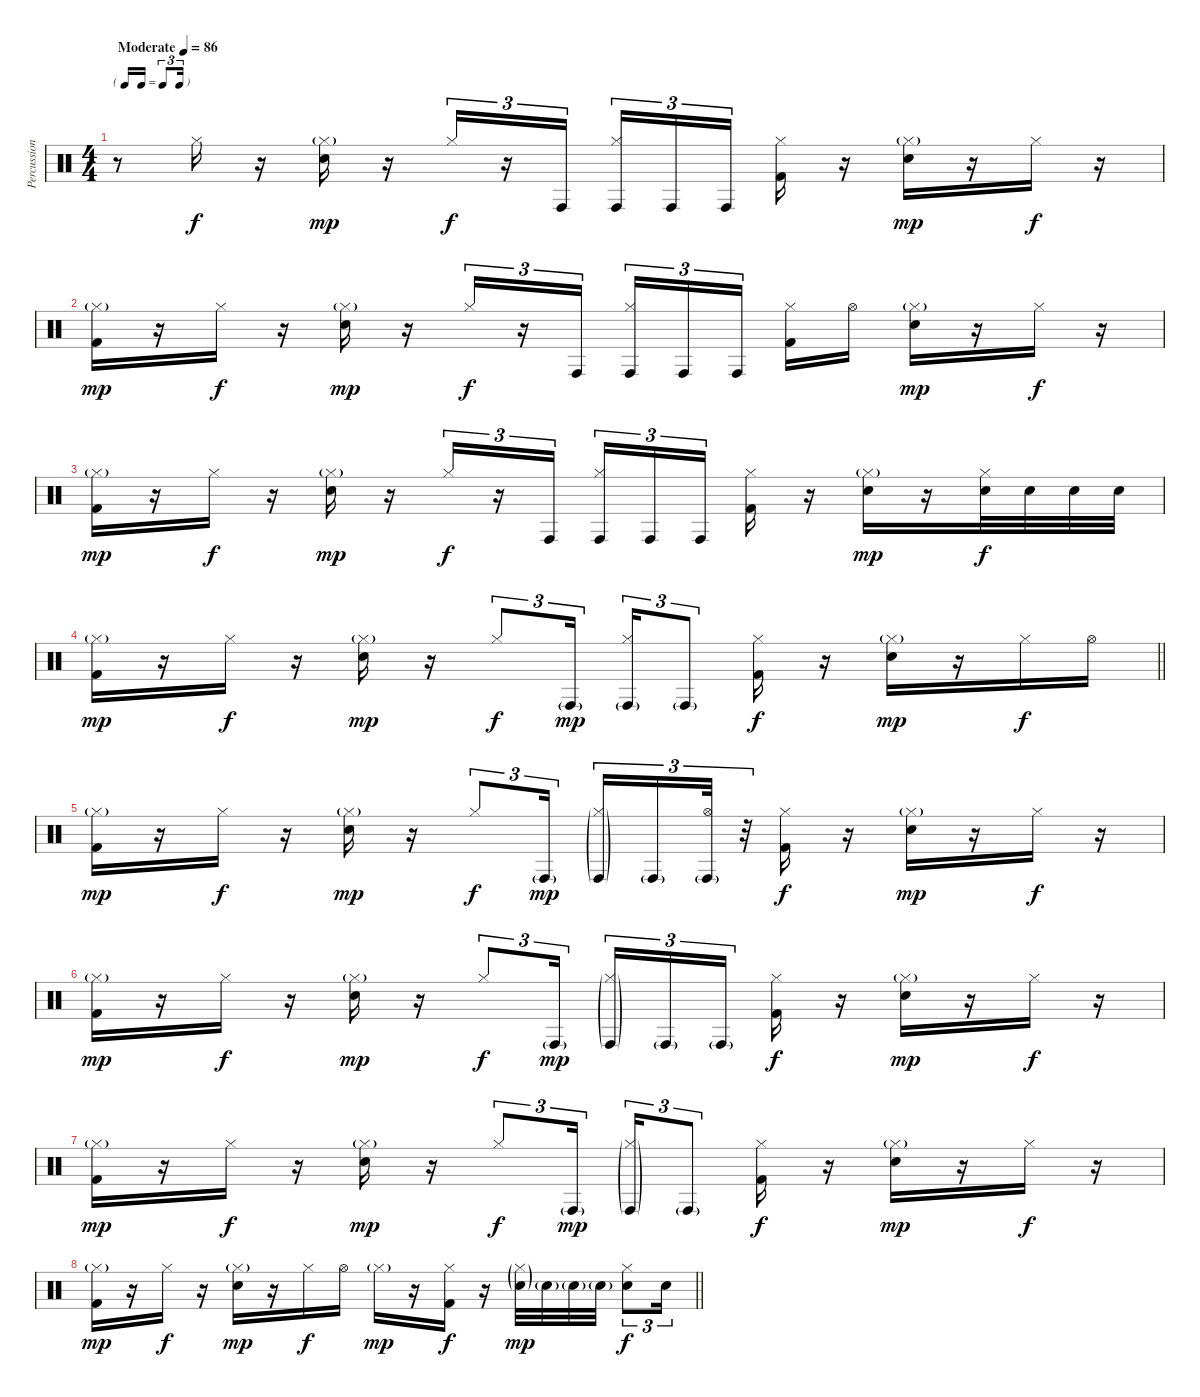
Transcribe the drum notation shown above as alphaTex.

\track ("Percussion" "Percussion") {instrument percussion}
\staff {score}
\articulation defaults
\ts (4 4)
\tf triplet16th
\tempo (86 "Moderate")
\clef neutral
\ks c
r.8{dy f} "Hi-Hat (closed)".16 r.16 ("Hi-Hat (closed)"{g} "Electric Snare (hit)").16{dy mp} r.16 "Hi-Hat (closed)".16{tu (3 2) dy f} r.16{tu (3 2)} "Conga high (hit)".16{tu (3 2)} ("Conga high (hit)" "Hi-Hat (closed)").16{tu (3 2)} "Conga high (hit)".16{tu (3 2)} "Conga high (hit)".16{tu (3 2) beam splitsecondary} ("Hi-Hat (closed)" "Kick (hit) 2").16 r.16 ("Hi-Hat (closed)"{g} "Electric Snare (hit)").16{dy mp} r.16 "Hi-Hat (closed)".16{dy f} r.16 |
("Hi-Hat (closed)"{g} "Kick (hit) 2").16{dy mp} r.16 "Hi-Hat (closed)".16{dy f} r.16 ("Hi-Hat (closed)"{g} "Electric Snare (hit)").16{dy mp} r.16 "Hi-Hat (closed)".16{tu (3 2) dy f} r.16{tu (3 2)} "Conga high (hit)".16{tu (3 2)} ("Conga high (hit)" "Hi-Hat (closed)").16{tu (3 2)} "Conga high (hit)".16{tu (3 2)} "Conga high (hit)".16{tu (3 2) beam splitsecondary} ("Hi-Hat (closed)" "Kick (hit) 2").16 "Hi-Hat (open)".16 ("Hi-Hat (closed)"{g} "Electric Snare (hit)").16{dy mp} r.16 "Hi-Hat (closed)".16{dy f} r.16 |
("Hi-Hat (closed)"{g} "Kick (hit) 2").16{dy mp} r.16 "Hi-Hat (closed)".16{dy f} r.16 ("Hi-Hat (closed)"{g} "Electric Snare (hit)").16{dy mp} r.16 "Hi-Hat (closed)".16{tu (3 2) dy f} r.16{tu (3 2)} "Conga high (hit)".16{tu (3 2)} ("Conga high (hit)" "Hi-Hat (closed)").16{tu (3 2)} "Conga high (hit)".16{tu (3 2)} "Conga high (hit)".16{tu (3 2) beam splitsecondary} ("Hi-Hat (closed)" "Kick (hit) 2").16 r.16 ("Hi-Hat (closed)"{g} "Electric Snare (hit)").16{dy mp} r.16 ("Hi-Hat (closed)" "Electric Snare (hit)").32{dy f} "Electric Snare (hit)".32 "Electric Snare (hit)".32 "Electric Snare (hit)".32 |
\barLineRight lightlight
("Hi-Hat (closed)"{g} "Kick (hit) 2").16{dy mp} r.16 "Hi-Hat (closed)".16{dy f} r.16 ("Hi-Hat (closed)"{g} "Electric Snare (hit)").16{dy mp} r.16 "Hi-Hat (closed)".8{tu (3 2) dy f} "Conga high (hit)"{g}.16{tu (3 2) dy mp} ("Conga high (hit)"{g} "Hi-Hat (closed)").16{tu (3 2)} "Conga high (hit)"{g}.8{tu (3 2)} ("Hi-Hat (closed)" "Kick (hit) 2").16{dy f} r.16 ("Hi-Hat (closed)"{g} "Electric Snare (hit)").16{dy mp} r.16 "Hi-Hat (closed)".16{dy f} "Hi-Hat (open)".16 |
("Hi-Hat (closed)"{g} "Kick (hit) 2").16{dy mp} r.16 "Hi-Hat (closed)".16{dy f} r.16 ("Hi-Hat (closed)"{g} "Electric Snare (hit)").16{dy mp} r.16 "Hi-Hat (closed)".8{tu (3 2) dy f} "Conga high (hit)"{g}.16{tu (3 2) dy mp} ("Conga high (hit)"{g} "Hi-Hat (closed)"{g}).16{tu (3 2)} "Conga high (hit)"{g}.16{tu (3 2)} ("Conga high (hit)"{g} "Hi-Hat (open)").32{tu (3 2)} r.32{tu (3 2)} ("Hi-Hat (closed)" "Kick (hit) 2").16{dy f} r.16 ("Hi-Hat (closed)"{g} "Electric Snare (hit)").16{dy mp} r.16 "Hi-Hat (closed)".16{dy f} r.16 |
("Hi-Hat (closed)"{g} "Kick (hit) 2").16{dy mp} r.16 "Hi-Hat (closed)".16{dy f} r.16 ("Hi-Hat (closed)"{g} "Electric Snare (hit)").16{dy mp} r.16 "Hi-Hat (closed)".8{tu (3 2) dy f} "Conga high (hit)"{g}.16{tu (3 2) dy mp} ("Conga high (hit)"{g} "Hi-Hat (closed)"{g}).16{tu (3 2)} "Conga high (hit)"{g}.16{tu (3 2)} "Conga high (hit)"{g}.16{tu (3 2) beam splitsecondary} ("Hi-Hat (closed)" "Kick (hit) 2").16{dy f} r.16 ("Hi-Hat (closed)"{g} "Electric Snare (hit)").16{dy mp} r.16 "Hi-Hat (closed)".16{dy f} r.16 |
("Hi-Hat (closed)"{g} "Kick (hit) 2").16{dy mp} r.16 "Hi-Hat (closed)".16{dy f} r.16 ("Hi-Hat (closed)"{g} "Electric Snare (hit)").16{dy mp} r.16 "Hi-Hat (closed)".8{tu (3 2) dy f} "Conga high (hit)"{g}.16{tu (3 2) dy mp} ("Conga high (hit)"{g} "Hi-Hat (closed)"{g}).16{tu (3 2)} "Conga high (hit)"{g}.8{tu (3 2)} ("Hi-Hat (closed)" "Kick (hit) 2").16{dy f} r.16 ("Hi-Hat (closed)"{g} "Electric Snare (hit)").16{dy mp} r.16 "Hi-Hat (closed)".16{dy f} r.16 |
\barLineRight lightlight
("Hi-Hat (closed)"{g} "Kick (hit) 2").16{dy mp} r.16 "Hi-Hat (closed)".16{dy f} r.16 ("Hi-Hat (closed)"{g} "Electric Snare (hit)").16{dy mp} r.16 "Hi-Hat (closed)".16{dy f} "Hi-Hat (open)".16 "Hi-Hat (closed)"{g}.16{dy mp} r.16 ("Hi-Hat (closed)" "Kick (hit) 2").16{dy f} r.16 ("Hi-Hat (closed)"{g} "Electric Snare (hit)"{g}).32{dy mp} "Electric Snare (hit)"{g}.32 "Electric Snare (hit)"{g}.32 "Electric Snare (hit)"{g}.32 ("Hi-Hat (closed)" "Electric Snare (hit)").8{tu (3 2) dy f} "Electric Snare (hit)".16{tu (3 2)}
